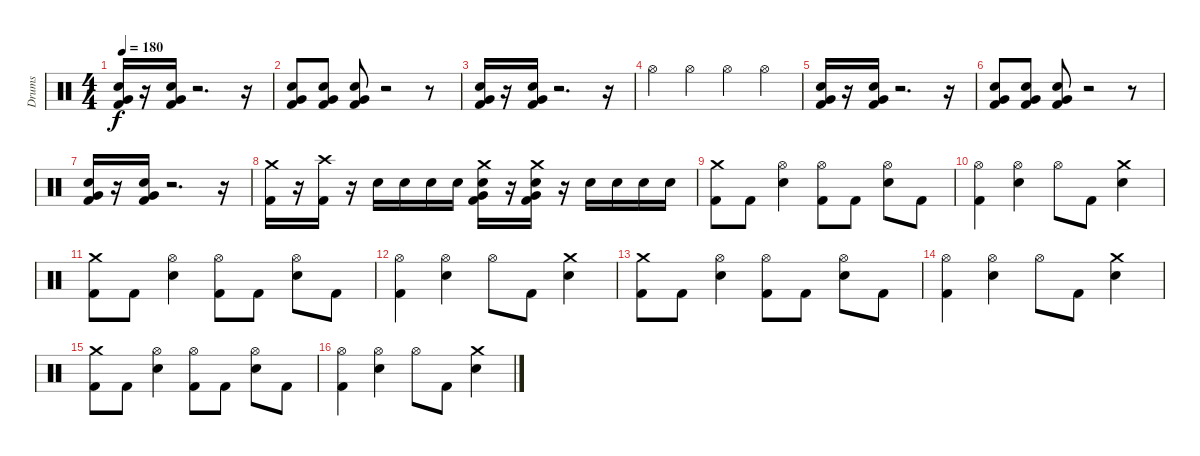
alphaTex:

\track ("Drums" "Drums") {instrument percussion}
\staff {score}
\articulation defaults
\ts (4 4)
\tempo 180
\clef neutral
\ks c
("Very Low Tom (hit)" "Electric Snare (hit)" "Kick (hit) 2").16{dy f} r.16 ("Very Low Tom (hit)" "Electric Snare (hit)" "Kick (hit) 2").16 r.2{d} r.16 |
("Electric Snare (hit)" "Very Low Tom (hit)" "Kick (hit) 2").8 ("Electric Snare (hit)" "Very Low Tom (hit)" "Kick (hit) 2").8 ("Electric Snare (hit)" "Very Low Tom (hit)" "Kick (hit) 2").8 r.2 r.8 |
("Very Low Tom (hit)" "Electric Snare (hit)" "Kick (hit) 2").16 r.16 ("Very Low Tom (hit)" "Electric Snare (hit)" "Kick (hit) 2").16 r.2{d} r.16 |
"Hi-Hat (open)".4 "Hi-Hat (open)".4 "Hi-Hat (open)".4 "Hi-Hat (open)".4 |
("Very Low Tom (hit)" "Electric Snare (hit)" "Kick (hit) 2").16 r.16 ("Very Low Tom (hit)" "Electric Snare (hit)" "Kick (hit) 2").16 r.2{d} r.16 |
("Electric Snare (hit)" "Very Low Tom (hit)" "Kick (hit) 2").8 ("Electric Snare (hit)" "Very Low Tom (hit)" "Kick (hit) 2").8 ("Electric Snare (hit)" "Very Low Tom (hit)" "Kick (hit) 2").8 r.2 r.8 |
("Very Low Tom (hit)" "Electric Snare (hit)" "Kick (hit) 2").16 r.16 ("Very Low Tom (hit)" "Electric Snare (hit)" "Kick (hit) 2").16 r.2{d} r.16 |
("Crash medium (hit)" "Kick (hit) 2").16 r.16 ("Crash high (hit)" "Kick (hit) 2").16 r.16 "Electric Snare (hit)".16 "Electric Snare (hit)".16 "Electric Snare (hit)".16 "Electric Snare (hit)".16 ("Crash medium (hit)" "Kick (hit) 2" "Very Low Tom (hit)" "Electric Snare (hit)").16 r.16 ("Crash medium (hit)" "Kick (hit) 2" "Very Low Tom (hit)" "Electric Snare (hit)").16 r.16 "Electric Snare (hit)".16 "Electric Snare (hit)".16 "Electric Snare (hit)".16 "Electric Snare (hit)".16 |
("Kick (hit) 2" "Crash medium (hit)").8 "Kick (hit) 2".8 ("Electric Snare (hit)" "Hi-Hat (open)").4 ("Kick (hit) 2" "Hi-Hat (open)").8 "Kick (hit) 2".8 ("Electric Snare (hit)" "Hi-Hat (open)").8 "Kick (hit) 2".8 |
("Kick (hit) 2" "Hi-Hat (open)").4 ("Electric Snare (hit)" "Hi-Hat (open)").4 "Hi-Hat (open)".8 "Kick (hit) 2".8 ("Electric Snare (hit)" "Crash medium (hit)").4 |
("Kick (hit) 2" "Crash medium (hit)").8 "Kick (hit) 2".8 ("Electric Snare (hit)" "Hi-Hat (open)").4 ("Kick (hit) 2" "Hi-Hat (open)").8 "Kick (hit) 2".8 ("Electric Snare (hit)" "Hi-Hat (open)").8 "Kick (hit) 2".8 |
("Kick (hit) 2" "Hi-Hat (open)").4 ("Electric Snare (hit)" "Hi-Hat (open)").4 "Hi-Hat (open)".8 "Kick (hit) 2".8 ("Electric Snare (hit)" "Crash medium (hit)").4 |
("Kick (hit) 2" "Crash medium (hit)").8 "Kick (hit) 2".8 ("Electric Snare (hit)" "Hi-Hat (open)").4 ("Kick (hit) 2" "Hi-Hat (open)").8 "Kick (hit) 2".8 ("Electric Snare (hit)" "Hi-Hat (open)").8 "Kick (hit) 2".8 |
("Kick (hit) 2" "Hi-Hat (open)").4 ("Electric Snare (hit)" "Hi-Hat (open)").4 "Hi-Hat (open)".8 "Kick (hit) 2".8 ("Electric Snare (hit)" "Crash medium (hit)").4 |
("Kick (hit) 2" "Crash medium (hit)").8 "Kick (hit) 2".8 ("Electric Snare (hit)" "Hi-Hat (open)").4 ("Kick (hit) 2" "Hi-Hat (open)").8 "Kick (hit) 2".8 ("Electric Snare (hit)" "Hi-Hat (open)").8 "Kick (hit) 2".8 |
("Kick (hit) 2" "Hi-Hat (open)").4 ("Electric Snare (hit)" "Hi-Hat (open)").4 "Hi-Hat (open)".8 "Kick (hit) 2".8 ("Electric Snare (hit)" "Crash medium (hit)").4
